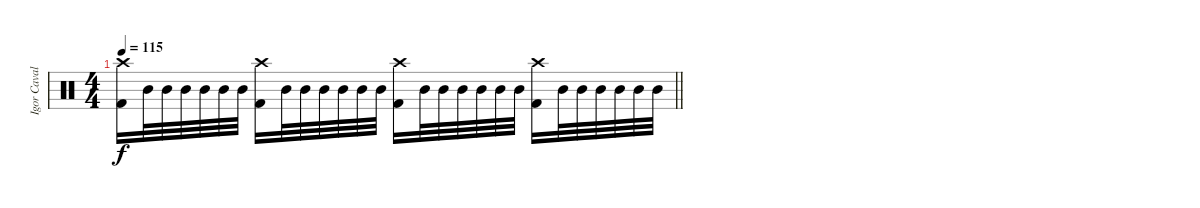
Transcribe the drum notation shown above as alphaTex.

\track ("Igor Cavalera" "Igor Caval") {instrument percussion}
\staff {score}
\articulation defaults
\ts (4 4)
\tempo 115
\clef neutral
\barLineRight lightlight
\ks c
("Kick (hit) 2" "Crash high (hit)").16{dy f} "Mid Tom (hit)".32 "Mid Tom (hit)".32 "Mid Tom (hit)".32 "Mid Tom (hit)".32 "Mid Tom (hit)".32 "Mid Tom (hit)".32 ("Kick (hit) 2" "Crash high (hit)").16 "Mid Tom (hit)".32 "Mid Tom (hit)".32 "Mid Tom (hit)".32 "Mid Tom (hit)".32 "Mid Tom (hit)".32 "Mid Tom (hit)".32 ("Kick (hit) 2" "Crash high (hit)").16 "Mid Tom (hit)".32 "Mid Tom (hit)".32 "Mid Tom (hit)".32 "Mid Tom (hit)".32 "Mid Tom (hit)".32 "Mid Tom (hit)".32 ("Kick (hit) 2" "Crash high (hit)").16 "Mid Tom (hit)".32 "Mid Tom (hit)".32 "Mid Tom (hit)".32 "Mid Tom (hit)".32 "Mid Tom (hit)".32 "Mid Tom (hit)".32
